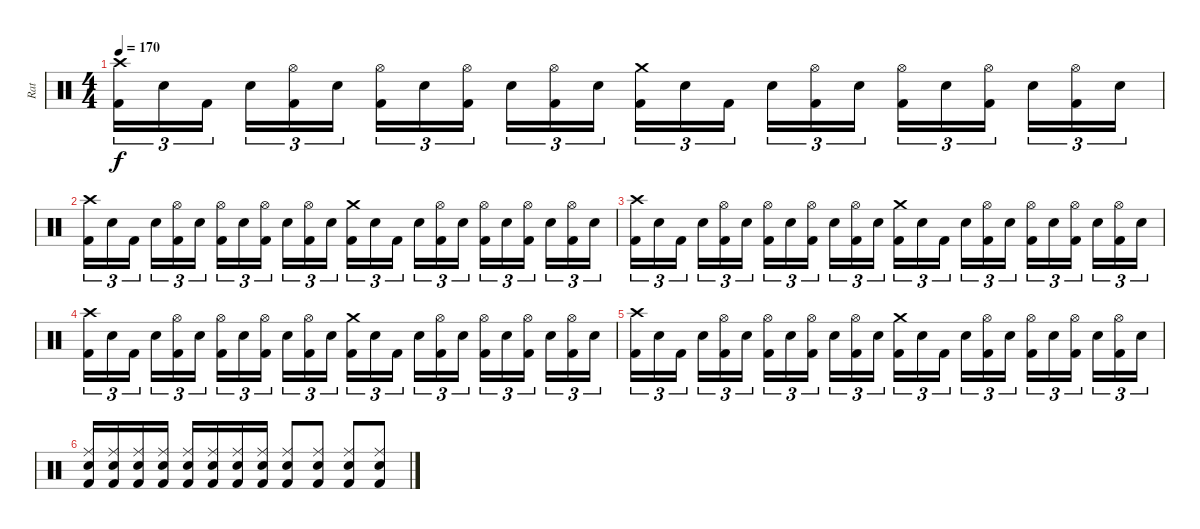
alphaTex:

\track ("Rat" "Rat") {instrument percussion}
\staff {score}
\articulation defaults
\ts (4 4)
\tempo 170
\clef neutral
\ks c
("Crash high (hit)" "Kick (hit) 2").16{tu (3 2) dy f} "Electric Snare (hit)".16{tu (3 2)} "Kick (hit) 2".16{tu (3 2) beam splitsecondary} "Electric Snare (hit)".16{tu (3 2)} ("Hi-Hat (open)" "Kick (hit) 2").16{tu (3 2)} "Electric Snare (hit)".16{tu (3 2)} ("Hi-Hat (open)" "Kick (hit) 2").16{tu (3 2)} "Electric Snare (hit)".16{tu (3 2)} ("Hi-Hat (open)" "Kick (hit) 2").16{tu (3 2) beam splitsecondary} "Electric Snare (hit)".16{tu (3 2)} ("Hi-Hat (open)" "Kick (hit) 2").16{tu (3 2)} "Electric Snare (hit)".16{tu (3 2)} ("Crash medium (hit)" "Kick (hit) 2").16{tu (3 2)} "Electric Snare (hit)".16{tu (3 2)} "Kick (hit) 2".16{tu (3 2) beam splitsecondary} "Electric Snare (hit)".16{tu (3 2)} ("Hi-Hat (open)" "Kick (hit) 2").16{tu (3 2)} "Electric Snare (hit)".16{tu (3 2)} ("Hi-Hat (open)" "Kick (hit) 2").16{tu (3 2)} "Electric Snare (hit)".16{tu (3 2)} ("Hi-Hat (open)" "Kick (hit) 2").16{tu (3 2) beam splitsecondary} "Electric Snare (hit)".16{tu (3 2)} ("Hi-Hat (open)" "Kick (hit) 2").16{tu (3 2)} "Electric Snare (hit)".16{tu (3 2)} |
("Crash high (hit)" "Kick (hit) 2").16{tu (3 2)} "Electric Snare (hit)".16{tu (3 2)} "Kick (hit) 2".16{tu (3 2) beam splitsecondary} "Electric Snare (hit)".16{tu (3 2)} ("Hi-Hat (open)" "Kick (hit) 2").16{tu (3 2)} "Electric Snare (hit)".16{tu (3 2)} ("Hi-Hat (open)" "Kick (hit) 2").16{tu (3 2)} "Electric Snare (hit)".16{tu (3 2)} ("Hi-Hat (open)" "Kick (hit) 2").16{tu (3 2) beam splitsecondary} "Electric Snare (hit)".16{tu (3 2)} ("Hi-Hat (open)" "Kick (hit) 2").16{tu (3 2)} "Electric Snare (hit)".16{tu (3 2)} ("Crash medium (hit)" "Kick (hit) 2").16{tu (3 2)} "Electric Snare (hit)".16{tu (3 2)} "Kick (hit) 2".16{tu (3 2) beam splitsecondary} "Electric Snare (hit)".16{tu (3 2)} ("Hi-Hat (open)" "Kick (hit) 2").16{tu (3 2)} "Electric Snare (hit)".16{tu (3 2)} ("Hi-Hat (open)" "Kick (hit) 2").16{tu (3 2)} "Electric Snare (hit)".16{tu (3 2)} ("Hi-Hat (open)" "Kick (hit) 2").16{tu (3 2) beam splitsecondary} "Electric Snare (hit)".16{tu (3 2)} ("Hi-Hat (open)" "Kick (hit) 2").16{tu (3 2)} "Electric Snare (hit)".16{tu (3 2)} |
("Crash high (hit)" "Kick (hit) 2").16{tu (3 2)} "Electric Snare (hit)".16{tu (3 2)} "Kick (hit) 2".16{tu (3 2) beam splitsecondary} "Electric Snare (hit)".16{tu (3 2)} ("Hi-Hat (open)" "Kick (hit) 2").16{tu (3 2)} "Electric Snare (hit)".16{tu (3 2)} ("Hi-Hat (open)" "Kick (hit) 2").16{tu (3 2)} "Electric Snare (hit)".16{tu (3 2)} ("Hi-Hat (open)" "Kick (hit) 2").16{tu (3 2) beam splitsecondary} "Electric Snare (hit)".16{tu (3 2)} ("Hi-Hat (open)" "Kick (hit) 2").16{tu (3 2)} "Electric Snare (hit)".16{tu (3 2)} ("Crash medium (hit)" "Kick (hit) 2").16{tu (3 2)} "Electric Snare (hit)".16{tu (3 2)} "Kick (hit) 2".16{tu (3 2) beam splitsecondary} "Electric Snare (hit)".16{tu (3 2)} ("Hi-Hat (open)" "Kick (hit) 2").16{tu (3 2)} "Electric Snare (hit)".16{tu (3 2)} ("Hi-Hat (open)" "Kick (hit) 2").16{tu (3 2)} "Electric Snare (hit)".16{tu (3 2)} ("Hi-Hat (open)" "Kick (hit) 2").16{tu (3 2) beam splitsecondary} "Electric Snare (hit)".16{tu (3 2)} ("Hi-Hat (open)" "Kick (hit) 2").16{tu (3 2)} "Electric Snare (hit)".16{tu (3 2)} |
("Crash high (hit)" "Kick (hit) 2").16{tu (3 2)} "Electric Snare (hit)".16{tu (3 2)} "Kick (hit) 2".16{tu (3 2) beam splitsecondary} "Electric Snare (hit)".16{tu (3 2)} ("Hi-Hat (open)" "Kick (hit) 2").16{tu (3 2)} "Electric Snare (hit)".16{tu (3 2)} ("Hi-Hat (open)" "Kick (hit) 2").16{tu (3 2)} "Electric Snare (hit)".16{tu (3 2)} ("Hi-Hat (open)" "Kick (hit) 2").16{tu (3 2) beam splitsecondary} "Electric Snare (hit)".16{tu (3 2)} ("Hi-Hat (open)" "Kick (hit) 2").16{tu (3 2)} "Electric Snare (hit)".16{tu (3 2)} ("Crash medium (hit)" "Kick (hit) 2").16{tu (3 2)} "Electric Snare (hit)".16{tu (3 2)} "Kick (hit) 2".16{tu (3 2) beam splitsecondary} "Electric Snare (hit)".16{tu (3 2)} ("Hi-Hat (open)" "Kick (hit) 2").16{tu (3 2)} "Electric Snare (hit)".16{tu (3 2)} ("Hi-Hat (open)" "Kick (hit) 2").16{tu (3 2)} "Electric Snare (hit)".16{tu (3 2)} ("Hi-Hat (open)" "Kick (hit) 2").16{tu (3 2) beam splitsecondary} "Electric Snare (hit)".16{tu (3 2)} ("Hi-Hat (open)" "Kick (hit) 2").16{tu (3 2)} "Electric Snare (hit)".16{tu (3 2)} |
("Crash high (hit)" "Kick (hit) 2").16{tu (3 2)} "Electric Snare (hit)".16{tu (3 2)} "Kick (hit) 2".16{tu (3 2) beam splitsecondary} "Electric Snare (hit)".16{tu (3 2)} ("Hi-Hat (open)" "Kick (hit) 2").16{tu (3 2)} "Electric Snare (hit)".16{tu (3 2)} ("Hi-Hat (open)" "Kick (hit) 2").16{tu (3 2)} "Electric Snare (hit)".16{tu (3 2)} ("Hi-Hat (open)" "Kick (hit) 2").16{tu (3 2) beam splitsecondary} "Electric Snare (hit)".16{tu (3 2)} ("Hi-Hat (open)" "Kick (hit) 2").16{tu (3 2)} "Electric Snare (hit)".16{tu (3 2)} ("Crash medium (hit)" "Kick (hit) 2").16{tu (3 2)} "Electric Snare (hit)".16{tu (3 2)} "Kick (hit) 2".16{tu (3 2) beam splitsecondary} "Electric Snare (hit)".16{tu (3 2)} ("Hi-Hat (open)" "Kick (hit) 2").16{tu (3 2)} "Electric Snare (hit)".16{tu (3 2)} ("Hi-Hat (open)" "Kick (hit) 2").16{tu (3 2)} "Electric Snare (hit)".16{tu (3 2)} ("Hi-Hat (open)" "Kick (hit) 2").16{tu (3 2) beam splitsecondary} "Electric Snare (hit)".16{tu (3 2)} ("Hi-Hat (open)" "Kick (hit) 2").16{tu (3 2)} "Electric Snare (hit)".16{tu (3 2)} |
("Ride (middle)" "Snare (hit) 2" "Kick (hit) 2").16 ("Ride (middle)" "Snare (hit) 2" "Kick (hit) 2").16 ("Ride (middle)" "Snare (hit) 2" "Kick (hit) 2").16 ("Ride (middle)" "Snare (hit) 2" "Kick (hit) 2").16 ("Ride (middle)" "Snare (hit) 2" "Kick (hit) 2").16 ("Ride (middle)" "Snare (hit) 2" "Kick (hit) 2").16 ("Ride (middle)" "Snare (hit) 2" "Kick (hit) 2").16 ("Ride (middle)" "Snare (hit) 2" "Kick (hit) 2").16 ("Ride (middle)" "Snare (hit) 2" "Kick (hit) 2").8 ("Ride (middle)" "Snare (hit) 2" "Kick (hit) 2").8 ("Ride (middle)" "Snare (hit) 2" "Kick (hit) 2").8 ("Ride (middle)" "Snare (hit) 2" "Kick (hit) 2").8
